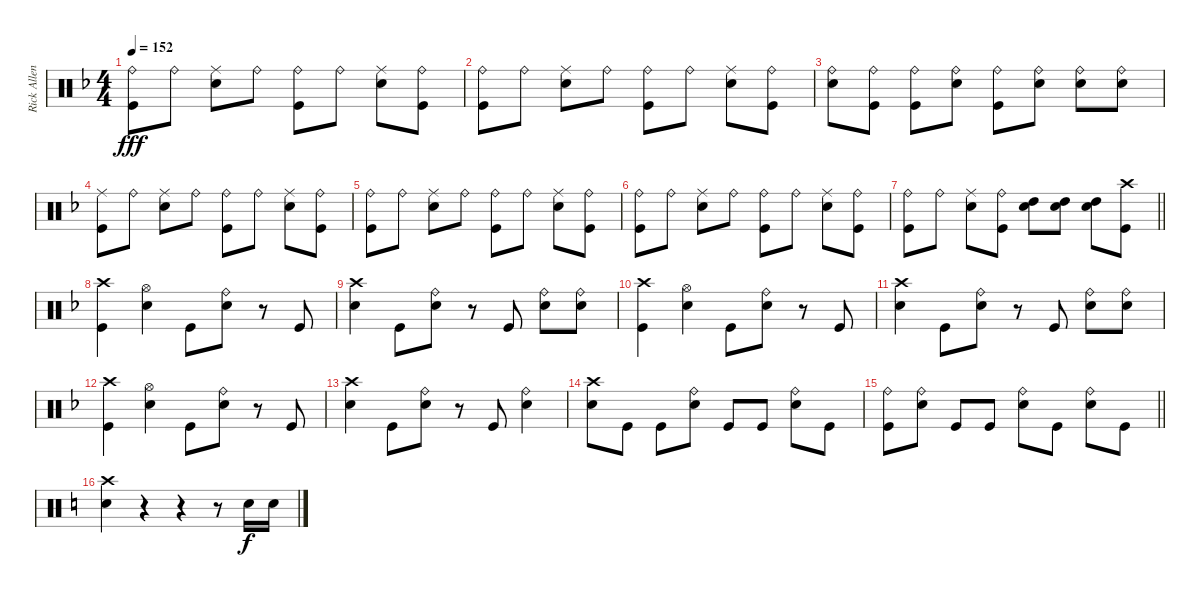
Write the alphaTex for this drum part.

\track ("Rick Allen" "Rick Allen") {instrument percussion}
\staff {score}
\articulation defaults
\ts (4 4)
\tempo 152
\clef neutral
\ks dminor
("Ride (bell)" "Kick (hit)").8{dy fff} "Ride (bell)".8 ("Ride (middle)" "Snare (hit) 2").8 "Ride (bell)".8 ("Ride (bell)" "Kick (hit)").8 "Ride (bell)".8 ("Ride (middle)" "Snare (hit) 2").8 ("Ride (bell)" "Kick (hit)").8 |
("Ride (bell)" "Kick (hit)").8 "Ride (bell)".8 ("Ride (middle)" "Snare (hit) 2").8 "Ride (bell)".8 ("Ride (bell)" "Kick (hit)").8 "Ride (bell)".8 ("Ride (middle)" "Snare (hit) 2").8 ("Ride (bell)" "Kick (hit)").8 |
("Ride (bell)" "Snare (hit) 2").8 ("Ride (bell)" "Kick (hit)").8 ("Ride (bell)" "Kick (hit)").8 ("Ride (bell)" "Snare (hit) 2").8 ("Ride (bell)" "Kick (hit)").8 ("Ride (bell)" "Snare (hit) 2").8 ("Ride (bell)" "Snare (hit) 2").8 ("Ride (bell)" "Snare (hit) 2").8 |
("Ride (middle)" "Kick (hit)").8 "Ride (bell)".8 ("Ride (middle)" "Snare (hit) 2").8 "Ride (bell)".8 ("Ride (bell)" "Kick (hit)").8 "Ride (bell)".8 ("Ride (middle)" "Snare (hit) 2").8 ("Ride (bell)" "Kick (hit)").8 |
("Ride (bell)" "Kick (hit)").8 "Ride (bell)".8 ("Ride (middle)" "Snare (hit) 2").8 "Ride (bell)".8 ("Ride (bell)" "Kick (hit)").8 "Ride (bell)".8 ("Ride (middle)" "Snare (hit) 2").8 ("Ride (bell)" "Kick (hit)").8 |
("Ride (bell)" "Kick (hit)").8 "Ride (bell)".8 ("Ride (middle)" "Snare (hit) 2").8 "Ride (bell)".8 ("Ride (bell)" "Kick (hit)").8 "Ride (bell)".8 ("Ride (middle)" "Snare (hit) 2").8 ("Ride (bell)" "Kick (hit)").8 |
\barLineRight lightlight
("Ride (bell)" "Kick (hit)").8 "Ride (bell)".8 ("Ride (middle)" "Snare (hit) 2").8 ("Ride (bell)" "Kick (hit)").8 ("High Tom (hit)" "Snare (hit) 2").8 ("High Tom (hit)" "Snare (hit) 2").8 ("High Tom (hit)" "Snare (hit) 2").8 ("Crash high (hit)" "Kick (hit)").8 |
\ks f
("Crash high (hit)" "Kick (hit)").4 ("Hi-Hat (open)" "Snare (hit) 2").4 "Kick (hit)".8 ("Ride (bell)" "Snare (hit) 2").8 r.8 "Kick (hit)".8 |
("Crash high (hit)" "Snare (hit) 2").4 "Kick (hit)".8 ("Ride (bell)" "Snare (hit) 2").8 r.8 "Kick (hit)".8 ("Ride (bell)" "Snare (hit) 2").8 ("Ride (bell)" "Snare (hit) 2").8 |
("Crash high (hit)" "Kick (hit)").4 ("Hi-Hat (open)" "Snare (hit) 2").4 "Kick (hit)".8 ("Ride (bell)" "Snare (hit) 2").8 r.8 "Kick (hit)".8 |
("Crash high (hit)" "Snare (hit) 2").4 "Kick (hit)".8 ("Ride (bell)" "Snare (hit) 2").8 r.8 "Kick (hit)".8 ("Ride (bell)" "Snare (hit) 2").8 ("Ride (bell)" "Snare (hit) 2").8 |
("Crash high (hit)" "Kick (hit)").4 ("Hi-Hat (open)" "Snare (hit) 2").4 "Kick (hit)".8 ("Ride (bell)" "Snare (hit) 2").8 r.8 "Kick (hit)".8 |
("Crash high (hit)" "Snare (hit) 2").4 "Kick (hit)".8 ("Ride (bell)" "Snare (hit) 2").8 r.8 "Kick (hit)".8 ("Ride (bell)" "Snare (hit) 2").4 |
("Crash high (hit)" "Snare (hit) 2").8 "Kick (hit)".8 "Kick (hit)".8 ("Ride (bell)" "Snare (hit) 2").8 "Kick (hit)".8 "Kick (hit)".8 ("Ride (bell)" "Snare (hit) 2").8 "Kick (hit)".8 |
\barLineRight lightlight
\ks dminor
("Ride (bell)" "Kick (hit)").8 ("Ride (bell)" "Snare (hit) 2").8 "Kick (hit)".8 "Kick (hit)".8 ("Ride (bell)" "Snare (hit) 2").8 "Kick (hit)".8 ("Ride (bell)" "Snare (hit) 2").8 "Kick (hit)".8 |
\ks aminor
("Crash high (hit)" "Snare (hit) 2").4 r.4 r.4 r.8 "Snare (hit) 2".16{dy f} "Snare (hit) 2".16
